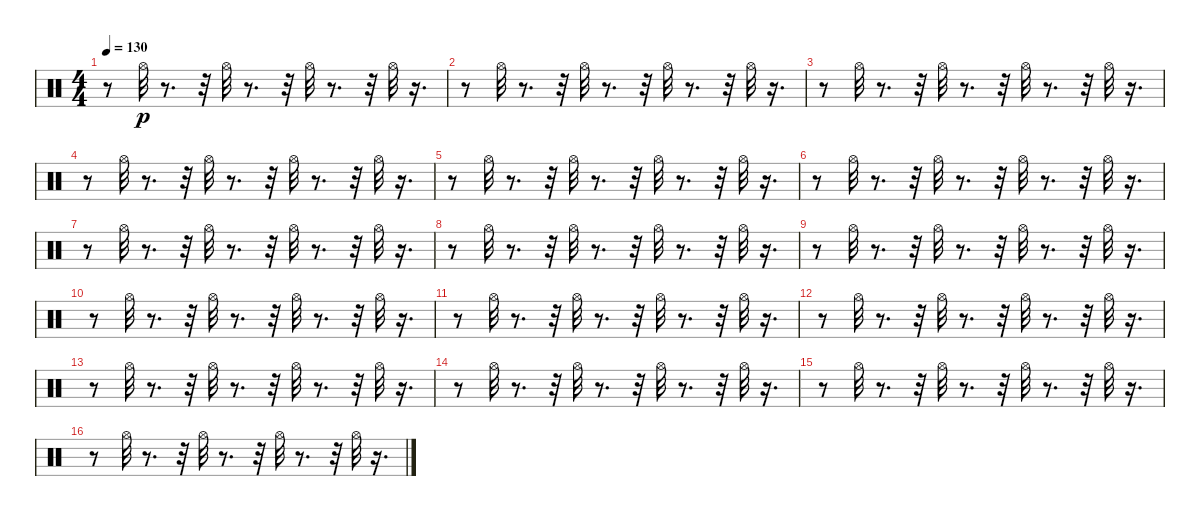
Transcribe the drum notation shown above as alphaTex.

\track "" {instrument percussion}
\staff {score}
\articulation defaults
\ts (4 4)
\tempo 130
\clef neutral
\ks c
r.8{dy p} "Hi-Hat (open)".32 r.8{d} r.32 "Hi-Hat (open)".32 r.8{d} r.32 "Hi-Hat (open)".32 r.8{d} r.32 "Hi-Hat (open)".32 r.16{d} |
r.8 "Hi-Hat (open)".32 r.8{d} r.32 "Hi-Hat (open)".32 r.8{d} r.32 "Hi-Hat (open)".32 r.8{d} r.32 "Hi-Hat (open)".32 r.16{d} |
r.8 "Hi-Hat (open)".32 r.8{d} r.32 "Hi-Hat (open)".32 r.8{d} r.32 "Hi-Hat (open)".32 r.8{d} r.32 "Hi-Hat (open)".32 r.16{d} |
r.8 "Hi-Hat (open)".32 r.8{d} r.32 "Hi-Hat (open)".32 r.8{d} r.32 "Hi-Hat (open)".32 r.8{d} r.32 "Hi-Hat (open)".32 r.16{d} |
r.8 "Hi-Hat (open)".32 r.8{d} r.32 "Hi-Hat (open)".32 r.8{d} r.32 "Hi-Hat (open)".32 r.8{d} r.32 "Hi-Hat (open)".32 r.16{d} |
r.8 "Hi-Hat (open)".32 r.8{d} r.32 "Hi-Hat (open)".32 r.8{d} r.32 "Hi-Hat (open)".32 r.8{d} r.32 "Hi-Hat (open)".32 r.16{d} |
r.8 "Hi-Hat (open)".32 r.8{d} r.32 "Hi-Hat (open)".32 r.8{d} r.32 "Hi-Hat (open)".32 r.8{d} r.32 "Hi-Hat (open)".32 r.16{d} |
r.8 "Hi-Hat (open)".32 r.8{d} r.32 "Hi-Hat (open)".32 r.8{d} r.32 "Hi-Hat (open)".32 r.8{d} r.32 "Hi-Hat (open)".32 r.16{d} |
r.8 "Hi-Hat (open)".32 r.8{d} r.32 "Hi-Hat (open)".32 r.8{d} r.32 "Hi-Hat (open)".32 r.8{d} r.32 "Hi-Hat (open)".32 r.16{d} |
r.8 "Hi-Hat (open)".32 r.8{d} r.32 "Hi-Hat (open)".32 r.8{d} r.32 "Hi-Hat (open)".32 r.8{d} r.32 "Hi-Hat (open)".32 r.16{d} |
r.8 "Hi-Hat (open)".32 r.8{d} r.32 "Hi-Hat (open)".32 r.8{d} r.32 "Hi-Hat (open)".32 r.8{d} r.32 "Hi-Hat (open)".32 r.16{d} |
r.8 "Hi-Hat (open)".32 r.8{d} r.32 "Hi-Hat (open)".32 r.8{d} r.32 "Hi-Hat (open)".32 r.8{d} r.32 "Hi-Hat (open)".32 r.16{d} |
r.8 "Hi-Hat (open)".32 r.8{d} r.32 "Hi-Hat (open)".32 r.8{d} r.32 "Hi-Hat (open)".32 r.8{d} r.32 "Hi-Hat (open)".32 r.16{d} |
r.8 "Hi-Hat (open)".32 r.8{d} r.32 "Hi-Hat (open)".32 r.8{d} r.32 "Hi-Hat (open)".32 r.8{d} r.32 "Hi-Hat (open)".32 r.16{d} |
r.8 "Hi-Hat (open)".32 r.8{d} r.32 "Hi-Hat (open)".32 r.8{d} r.32 "Hi-Hat (open)".32 r.8{d} r.32 "Hi-Hat (open)".32 r.16{d} |
r.8 "Hi-Hat (open)".32 r.8{d} r.32 "Hi-Hat (open)".32 r.8{d} r.32 "Hi-Hat (open)".32 r.8{d} r.32 "Hi-Hat (open)".32 r.16{d}
